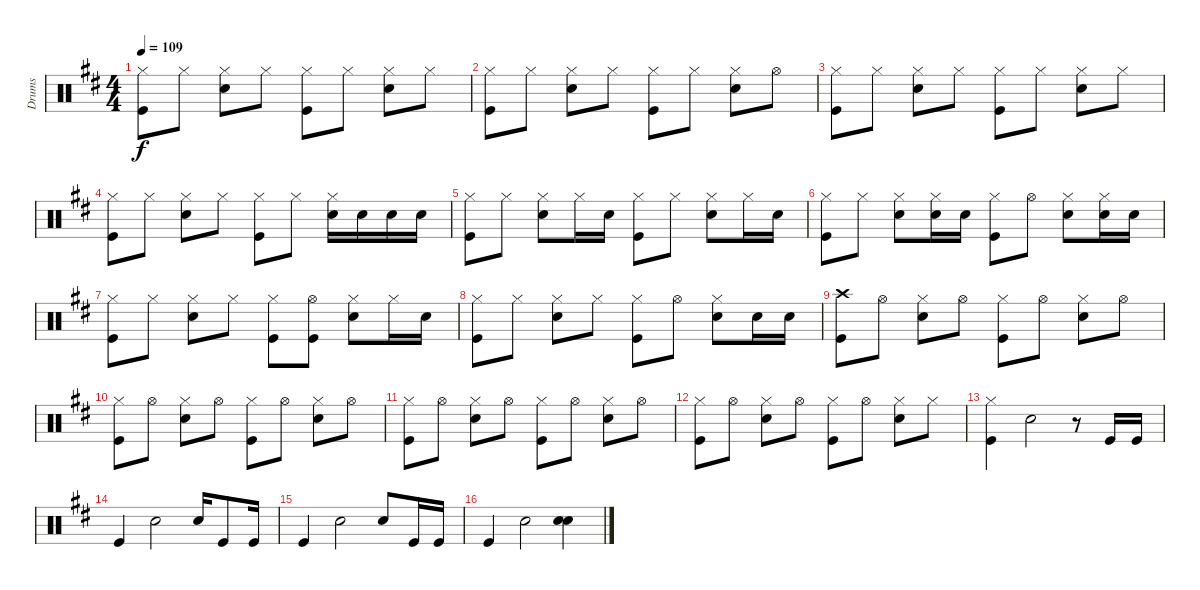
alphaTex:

\track ("Drums" "Drums") {instrument percussion}
\staff {score}
\articulation defaults
\ts (4 4)
\tempo 109
\clef neutral
\ks d
("Kick (hit)" "Hi-Hat (closed)").8{dy f} "Hi-Hat (closed)".8 ("Snare (hit) 2" "Hi-Hat (closed)").8 "Hi-Hat (closed)".8 ("Kick (hit)" "Hi-Hat (closed)").8 "Hi-Hat (closed)".8 ("Snare (hit) 2" "Hi-Hat (closed)").8 "Hi-Hat (closed)".8 |
("Kick (hit)" "Hi-Hat (closed)").8 "Hi-Hat (closed)".8 ("Snare (hit) 2" "Hi-Hat (closed)").8 "Hi-Hat (closed)".8 ("Kick (hit)" "Hi-Hat (closed)").8 "Hi-Hat (closed)".8 ("Snare (hit) 2" "Hi-Hat (closed)").8 "Hi-Hat (open)".8 |
("Kick (hit)" "Hi-Hat (closed)").8 "Hi-Hat (closed)".8 ("Snare (hit) 2" "Hi-Hat (closed)").8 "Hi-Hat (closed)".8 ("Kick (hit)" "Hi-Hat (closed)").8 "Hi-Hat (closed)".8 ("Snare (hit) 2" "Hi-Hat (closed)").8 "Hi-Hat (closed)".8 |
("Hi-Hat (closed)" "Kick (hit)").8 "Hi-Hat (closed)".8 ("Hi-Hat (closed)" "Snare (hit) 2").8 "Hi-Hat (closed)".8 ("Hi-Hat (closed)" "Kick (hit)").8 "Hi-Hat (closed)".8 ("Hi-Hat (closed)" "Snare (hit) 2").16 "Snare (hit) 2".16 "Snare (hit) 2".16 "Snare (hit) 2".16 |
("Hi-Hat (closed)" "Kick (hit)").8 "Hi-Hat (closed)".8 ("Hi-Hat (closed)" "Snare (hit) 2").8 "Hi-Hat (closed)".16 "Snare (hit) 2".16 ("Hi-Hat (closed)" "Kick (hit)").8 "Hi-Hat (closed)".8 ("Hi-Hat (closed)" "Snare (hit) 2").8 "Hi-Hat (closed)".16 "Snare (hit) 2".16 |
("Hi-Hat (closed)" "Kick (hit)").8 "Hi-Hat (closed)".8 ("Hi-Hat (closed)" "Snare (hit) 2").8 ("Snare (hit) 2" "Hi-Hat (closed)").16 "Snare (hit) 2".16 ("Hi-Hat (closed)" "Kick (hit)").8 "Hi-Hat (open)".8 ("Hi-Hat (closed)" "Snare (hit) 2").8 ("Snare (hit) 2" "Hi-Hat (closed)").16 "Snare (hit) 2".16 |
("Hi-Hat (closed)" "Kick (hit)").8 "Hi-Hat (closed)".8 ("Hi-Hat (closed)" "Snare (hit) 2").8 "Hi-Hat (closed)".8 ("Hi-Hat (closed)" "Kick (hit)").8 ("Hi-Hat (open)" "Kick (hit)").8 ("Hi-Hat (closed)" "Snare (hit) 2").8 "Hi-Hat (closed)".16 "Snare (hit) 2".16 |
("Hi-Hat (closed)" "Kick (hit)").8 "Hi-Hat (closed)".8 ("Hi-Hat (closed)" "Snare (hit) 2").8 "Hi-Hat (closed)".8 ("Hi-Hat (closed)" "Kick (hit)").8 "Hi-Hat (open)".8 ("Hi-Hat (closed)" "Snare (hit) 2").8 "Snare (hit) 2".16 "Snare (hit) 2".16 |
("Crash high (hit)" "Kick (hit)").8 "Hi-Hat (open)".8 ("Hi-Hat (closed)" "Snare (hit) 2").8 "Hi-Hat (open)".8 ("Hi-Hat (closed)" "Kick (hit)").8 "Hi-Hat (open)".8 ("Hi-Hat (closed)" "Snare (hit) 2").8 "Hi-Hat (open)".8 |
("Hi-Hat (closed)" "Kick (hit)").8 "Hi-Hat (open)".8 ("Hi-Hat (closed)" "Snare (hit) 2").8 "Hi-Hat (open)".8 ("Hi-Hat (closed)" "Kick (hit)").8 "Hi-Hat (open)".8 ("Hi-Hat (closed)" "Snare (hit) 2").8 "Hi-Hat (open)".8 |
("Hi-Hat (closed)" "Kick (hit)").8 "Hi-Hat (open)".8 ("Hi-Hat (closed)" "Snare (hit) 2").8 "Hi-Hat (open)".8 ("Hi-Hat (closed)" "Kick (hit)").8 "Hi-Hat (open)".8 ("Hi-Hat (closed)" "Snare (hit) 2").8 "Hi-Hat (open)".8 |
("Hi-Hat (closed)" "Kick (hit)").8 "Hi-Hat (open)".8 ("Hi-Hat (closed)" "Snare (hit) 2").8 "Hi-Hat (open)".8 ("Hi-Hat (closed)" "Kick (hit)").8 "Hi-Hat (open)".8 ("Hi-Hat (closed)" "Snare (hit) 2").8 "Hi-Hat (closed)".8 |
("Hi-Hat (closed)" "Kick (hit)").4 "Snare (hit) 2".2 r.8 "Kick (hit)".16 "Kick (hit)".16 |
"Kick (hit)".4 "Snare (hit) 2".2 "Snare (hit) 2".16 "Kick (hit)".8 "Kick (hit)".16 |
"Kick (hit)".4 "Snare (hit) 2".2 "Snare (hit) 2".8 "Kick (hit)".16 "Kick (hit)".16 |
"Kick (hit)".4 "Snare (hit) 2".2 ("Snare (hit) 2" "Electric Snare (hit)").4
